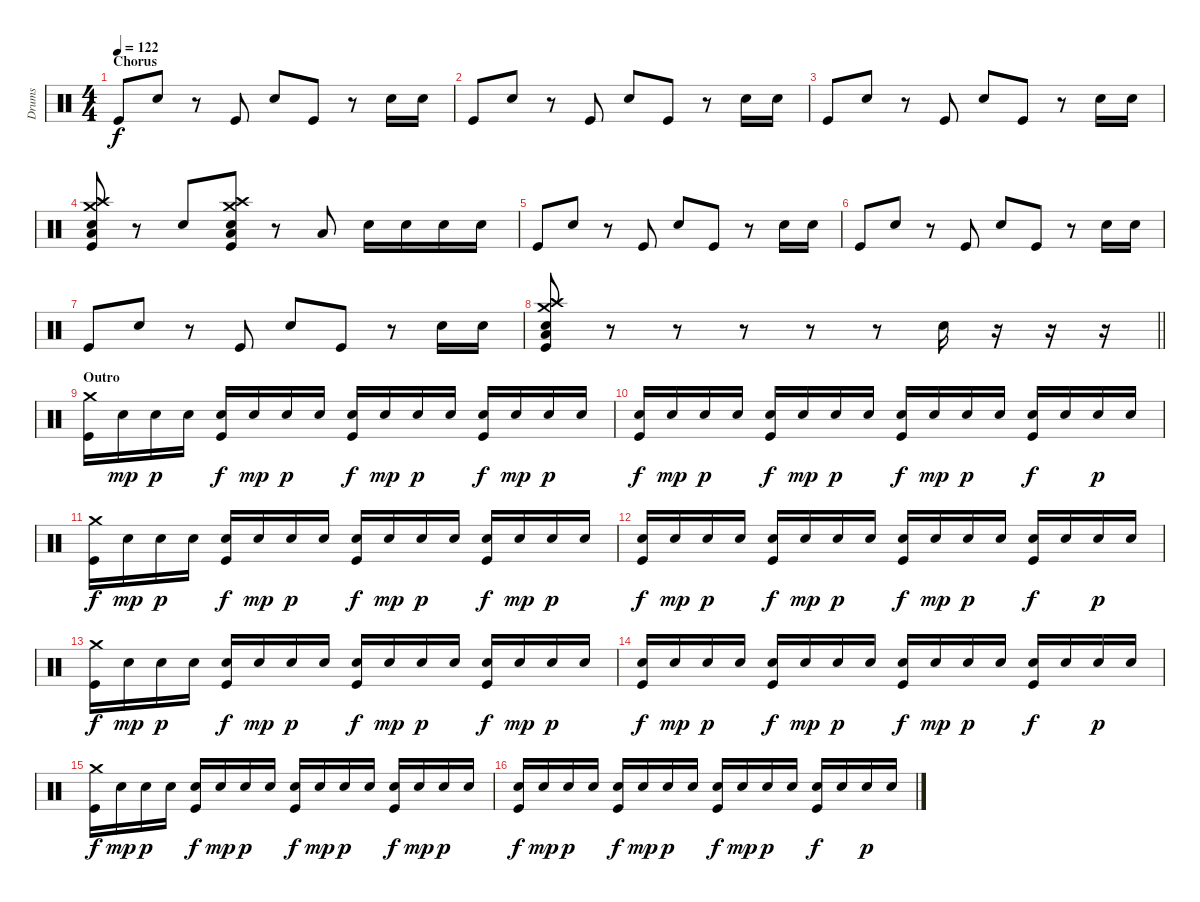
\track ("Drums" "Drums") {instrument percussion}
\staff {score}
\articulation defaults
\ts (4 4)
\section ("" "Chorus")
\tempo 122
\clef neutral
\ks c "Kick (hit)".8{dy f} "Snare (hit) 2".8
r.8 "Kick (hit)".8 "Snare (hit) 2".8 "Kick (hit)".8 r.8 "Snare (hit) 2".16 "Snare (hit) 2".16 |
"Kick (hit)".8 "Snare (hit) 2".8 r.8 "Kick (hit)".8 "Snare (hit) 2".8 "Kick (hit)".8 r.8 "Snare (hit) 2".16 "Snare (hit) 2".16 |
"Kick (hit)".8 "Snare (hit) 2".8 r.8 "Kick (hit)".8 "Snare (hit) 2".8 "Kick (hit)".8 r.8 "Snare (hit) 2".16 "Snare (hit) 2".16 |
("Crash high (hit)" "Crash medium (hit)" "Snare (hit) 2" "Low Tom (hit)" "Kick (hit)").8 r.8 "Snare (hit) 2".8 ("Crash high (hit)" "Crash medium (hit)" "Snare (hit) 2" "Low Tom (hit)" "Kick (hit)").8 r.8 "Low Tom (hit)".8 "Snare (hit) 2".16 "Snare (hit) 2".16 "Snare (hit) 2".16 "Snare (hit) 2".16 |
"Kick (hit)".8 "Snare (hit) 2".8 r.8 "Kick (hit)".8 "Snare (hit) 2".8 "Kick (hit)".8 r.8 "Snare (hit) 2".16 "Snare (hit) 2".16 |
"Kick (hit)".8 "Snare (hit) 2".8 r.8 "Kick (hit)".8 "Snare (hit) 2".8 "Kick (hit)".8 r.8 "Snare (hit) 2".16 "Snare (hit) 2".16 |
"Kick (hit)".8 "Snare (hit) 2".8 r.8 "Kick (hit)".8 "Snare (hit) 2".8 "Kick (hit)".8 r.8 "Snare (hit) 2".16 "Snare (hit) 2".16 |
\barLineRight lightlight
("Crash high (hit)" "Crash medium (hit)" "Snare (hit) 2" "Low Tom (hit)" "Kick (hit)").8 r.8 r.8 r.8 r.8 r.8 "Snare (hit) 2".16 r.16 r.16 r.16 |
\section ("" "Outro")
("Crash medium (hit)" "Kick (hit)").16 "Snare (hit) 2".16{dy mp} "Snare (hit) 2".16{dy p} "Snare (hit) 2".16 ("Snare (hit) 2" "Kick (hit)").16{dy f} "Snare (hit) 2".16{dy mp} "Snare (hit) 2".16{dy p} "Snare (hit) 2".16 ("Snare (hit) 2" "Kick (hit)").16{dy f} "Snare (hit) 2".16{dy mp} "Snare (hit) 2".16{dy p} "Snare (hit) 2".16 ("Snare (hit) 2" "Kick (hit)").16{dy f} "Snare (hit) 2".16{dy mp} "Snare (hit) 2".16{dy p} "Snare (hit) 2".16 |
("Snare (hit) 2" "Kick (hit)").16{dy f} "Snare (hit) 2".16{dy mp} "Snare (hit) 2".16{dy p} "Snare (hit) 2".16 ("Snare (hit) 2" "Kick (hit)").16{dy f} "Snare (hit) 2".16{dy mp} "Snare (hit) 2".16{dy p} "Snare (hit) 2".16 ("Snare (hit) 2" "Kick (hit)").16{dy f} "Snare (hit) 2".16{dy mp} "Snare (hit) 2".16{dy p} "Snare (hit) 2".16 ("Snare (hit) 2" "Kick (hit)").16{dy f} "Snare (hit) 2".16 "Snare (hit) 2".16{dy p} "Snare (hit) 2".16 |
("Crash medium (hit)" "Kick (hit)").16{dy f} "Snare (hit) 2".16{dy mp} "Snare (hit) 2".16{dy p} "Snare (hit) 2".16 ("Snare (hit) 2" "Kick (hit)").16{dy f} "Snare (hit) 2".16{dy mp} "Snare (hit) 2".16{dy p} "Snare (hit) 2".16 ("Snare (hit) 2" "Kick (hit)").16{dy f} "Snare (hit) 2".16{dy mp} "Snare (hit) 2".16{dy p} "Snare (hit) 2".16 ("Snare (hit) 2" "Kick (hit)").16{dy f} "Snare (hit) 2".16{dy mp} "Snare (hit) 2".16{dy p} "Snare (hit) 2".16 |
("Snare (hit) 2" "Kick (hit)").16{dy f} "Snare (hit) 2".16{dy mp} "Snare (hit) 2".16{dy p} "Snare (hit) 2".16 ("Snare (hit) 2" "Kick (hit)").16{dy f} "Snare (hit) 2".16{dy mp} "Snare (hit) 2".16{dy p} "Snare (hit) 2".16 ("Snare (hit) 2" "Kick (hit)").16{dy f} "Snare (hit) 2".16{dy mp} "Snare (hit) 2".16{dy p} "Snare (hit) 2".16 ("Snare (hit) 2" "Kick (hit)").16{dy f} "Snare (hit) 2".16 "Snare (hit) 2".16{dy p} "Snare (hit) 2".16 |
("Crash medium (hit)" "Kick (hit)").16{dy f} "Snare (hit) 2".16{dy mp} "Snare (hit) 2".16{dy p} "Snare (hit) 2".16 ("Snare (hit) 2" "Kick (hit)").16{dy f} "Snare (hit) 2".16{dy mp} "Snare (hit) 2".16{dy p} "Snare (hit) 2".16 ("Snare (hit) 2" "Kick (hit)").16{dy f} "Snare (hit) 2".16{dy mp} "Snare (hit) 2".16{dy p} "Snare (hit) 2".16 ("Snare (hit) 2" "Kick (hit)").16{dy f} "Snare (hit) 2".16{dy mp} "Snare (hit) 2".16{dy p} "Snare (hit) 2".16 |
("Snare (hit) 2" "Kick (hit)").16{dy f} "Snare (hit) 2".16{dy mp} "Snare (hit) 2".16{dy p} "Snare (hit) 2".16 ("Snare (hit) 2" "Kick (hit)").16{dy f} "Snare (hit) 2".16{dy mp} "Snare (hit) 2".16{dy p} "Snare (hit) 2".16 ("Snare (hit) 2" "Kick (hit)").16{dy f} "Snare (hit) 2".16{dy mp} "Snare (hit) 2".16{dy p} "Snare (hit) 2".16 ("Snare (hit) 2" "Kick (hit)").16{dy f} "Snare (hit) 2".16 "Snare (hit) 2".16{dy p} "Snare (hit) 2".16 |
("Crash medium (hit)" "Kick (hit)").16{dy f} "Snare (hit) 2".16{dy mp} "Snare (hit) 2".16{dy p} "Snare (hit) 2".16 ("Snare (hit) 2" "Kick (hit)").16{dy f} "Snare (hit) 2".16{dy mp} "Snare (hit) 2".16{dy p} "Snare (hit) 2".16 ("Snare (hit) 2" "Kick (hit)").16{dy f} "Snare (hit) 2".16{dy mp} "Snare (hit) 2".16{dy p} "Snare (hit) 2".16 ("Snare (hit) 2" "Kick (hit)").16{dy f} "Snare (hit) 2".16{dy mp} "Snare (hit) 2".16{dy p} "Snare (hit) 2".16 |
("Snare (hit) 2" "Kick (hit)").16{dy f} "Snare (hit) 2".16{dy mp} "Snare (hit) 2".16{dy p} "Snare (hit) 2".16 ("Snare (hit) 2" "Kick (hit)").16{dy f} "Snare (hit) 2".16{dy mp} "Snare (hit) 2".16{dy p} "Snare (hit) 2".16 ("Snare (hit) 2" "Kick (hit)").16{dy f} "Snare (hit) 2".16{dy mp} "Snare (hit) 2".16{dy p} "Snare (hit) 2".16 ("Snare (hit) 2" "Kick (hit)").16{dy f} "Snare (hit) 2".16 "Snare (hit) 2".16{dy p} "Snare (hit) 2".16
